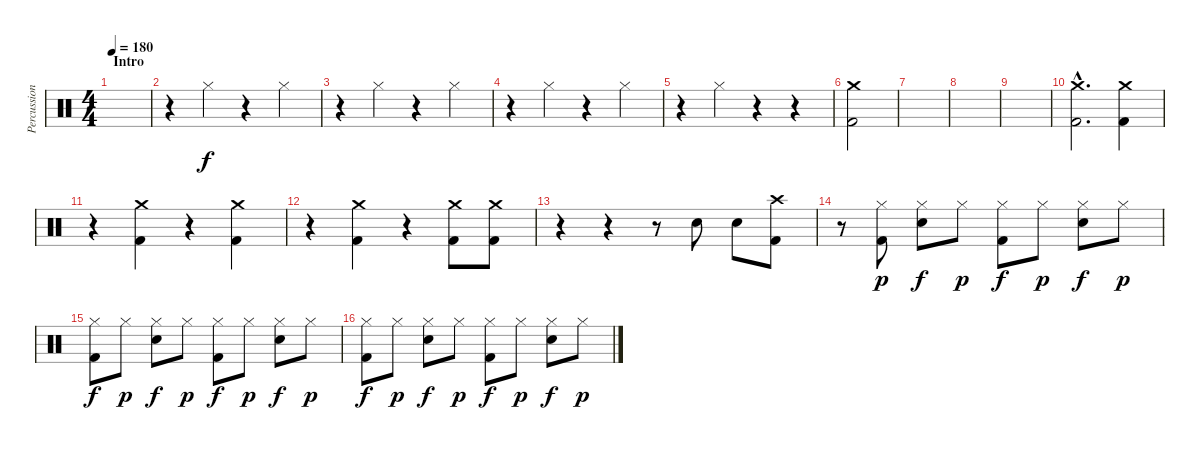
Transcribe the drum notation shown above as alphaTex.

\track ("Percussions" "Percussion") {instrument percussion}
\staff {score}
\articulation defaults
\ts (4 4)
\section ("" "Intro")
\tempo 180
\clef neutral
\ks c
|
r.4 "Hi-Hat (closed)".4 r.4 "Hi-Hat (closed)".4 |
r.4 "Hi-Hat (closed)".4 r.4 "Hi-Hat (closed)".4 |
r.4 "Hi-Hat (closed)".4 r.4 "Hi-Hat (closed)".4 |
r.4 "Hi-Hat (closed)".4 r.4 r.4 |
("Crash medium (hit)" "Kick (hit) 2").2 |
|
|
|
("Crash medium (hit)"{hac} "Kick (hit) 2"{hac}).2{d} ("Crash medium (hit)" "Kick (hit) 2").4 |
r.4 ("Crash medium (hit)" "Kick (hit) 2").4 r.4 ("Crash medium (hit)" "Kick (hit) 2").4 |
r.4 ("Crash medium (hit)" "Kick (hit) 2").4 r.4 ("Crash medium (hit)" "Kick (hit) 2").8 ("Crash medium (hit)" "Kick (hit) 2").8 |
r.4 r.4 r.8 "Electric Snare (hit)".8 "Electric Snare (hit)".8 ("Crash high (hit)" "Kick (hit) 2").8 |
r.8 ("Hi-Hat (closed)" "Kick (hit) 2").8{dy p} ("Hi-Hat (closed)" "Electric Snare (hit)").8{dy f} "Hi-Hat (closed)".8{dy p} ("Hi-Hat (closed)" "Kick (hit) 2").8{dy f} "Hi-Hat (closed)".8{dy p} ("Hi-Hat (closed)" "Electric Snare (hit)").8{dy f} "Hi-Hat (closed)".8{dy p} |
("Hi-Hat (closed)" "Kick (hit) 2").8{dy f} "Hi-Hat (closed)".8{dy p} ("Hi-Hat (closed)" "Electric Snare (hit)").8{dy f} "Hi-Hat (closed)".8{dy p} ("Hi-Hat (closed)" "Kick (hit) 2").8{dy f} "Hi-Hat (closed)".8{dy p} ("Hi-Hat (closed)" "Electric Snare (hit)").8{dy f} "Hi-Hat (closed)".8{dy p} |
("Hi-Hat (closed)" "Kick (hit) 2").8{dy f} "Hi-Hat (closed)".8{dy p} ("Hi-Hat (closed)" "Electric Snare (hit)").8{dy f} "Hi-Hat (closed)".8{dy p} ("Hi-Hat (closed)" "Kick (hit) 2").8{dy f} "Hi-Hat (closed)".8{dy p} ("Hi-Hat (closed)" "Electric Snare (hit)").8{dy f} "Hi-Hat (closed)".8{dy p}
